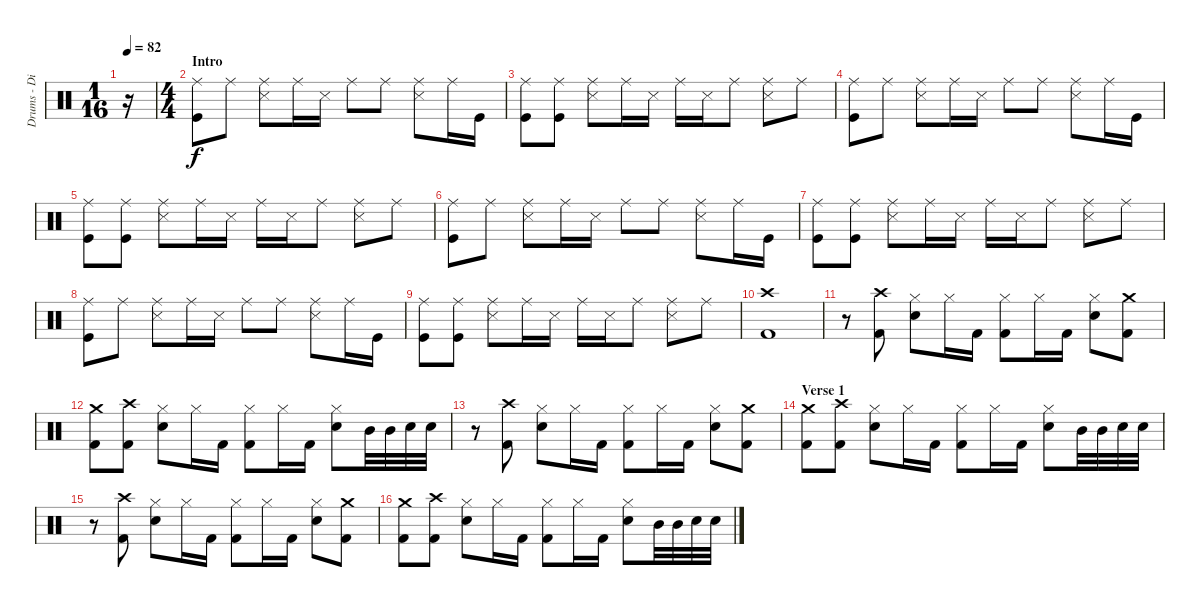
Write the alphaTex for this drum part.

\track ("Drums - Dino Campanella" "Drums - Di") {instrument percussion}
\staff {score}
\articulation defaults
\ts (1 16)
\tempo 82
\clef neutral
\ks c
r.16{dy f} |
\ts (4 4)
\section ("" "Intro")
("Ride (middle)" "Kick (hit)").8 "Ride (middle)".8 ("Ride (middle)" "Snare (side stick) 3").8 "Ride (middle)".16 "Snare (side stick) 3".16 "Ride (middle)".8 "Ride (middle)".8 ("Ride (middle)" "Snare (side stick) 3").8 "Ride (middle)".16 "Kick (hit)".16 |
("Ride (middle)" "Kick (hit)").8 ("Ride (middle)" "Kick (hit)").8 ("Ride (middle)" "Snare (side stick) 3").8 "Ride (middle)".16 "Snare (side stick) 3".16 "Ride (middle)".16 "Snare (side stick) 3".16 "Ride (middle)".8 ("Ride (middle)" "Snare (side stick) 3").8 "Ride (middle)".8 |
("Ride (middle)" "Kick (hit)").8 "Ride (middle)".8 ("Ride (middle)" "Snare (side stick) 3").8 "Ride (middle)".16 "Snare (side stick) 3".16 "Ride (middle)".8 "Ride (middle)".8 ("Ride (middle)" "Snare (side stick) 3").8 "Ride (middle)".16 "Kick (hit)".16 |
("Ride (middle)" "Kick (hit)").8 ("Ride (middle)" "Kick (hit)").8 ("Ride (middle)" "Snare (side stick) 3").8 "Ride (middle)".16 "Snare (side stick) 3".16 "Ride (middle)".16 "Snare (side stick) 3".16 "Ride (middle)".8 ("Ride (middle)" "Snare (side stick) 3").8 "Ride (middle)".8 |
("Ride (middle)" "Kick (hit)").8 "Ride (middle)".8 ("Ride (middle)" "Snare (side stick) 3").8 "Ride (middle)".16 "Snare (side stick) 3".16 "Ride (middle)".8 "Ride (middle)".8 ("Ride (middle)" "Snare (side stick) 3").8 "Ride (middle)".16 "Kick (hit)".16 |
("Ride (middle)" "Kick (hit)").8 ("Ride (middle)" "Kick (hit)").8 ("Ride (middle)" "Snare (side stick) 3").8 "Ride (middle)".16 "Snare (side stick) 3".16 "Ride (middle)".16 "Snare (side stick) 3".16 "Ride (middle)".8 ("Ride (middle)" "Snare (side stick) 3").8 "Ride (middle)".8 |
("Ride (middle)" "Kick (hit)").8 "Ride (middle)".8 ("Ride (middle)" "Snare (side stick) 3").8 "Ride (middle)".16 "Snare (side stick) 3".16 "Ride (middle)".8 "Ride (middle)".8 ("Ride (middle)" "Snare (side stick) 3").8 "Ride (middle)".16 "Kick (hit)".16 |
("Ride (middle)" "Kick (hit)").8 ("Ride (middle)" "Kick (hit)").8 ("Ride (middle)" "Snare (side stick) 3").8 "Ride (middle)".16 "Snare (side stick) 3".16 "Ride (middle)".16 "Snare (side stick) 3".16 "Ride (middle)".8 ("Ride (middle)" "Snare (side stick) 3").8 "Ride (middle)".8 |
("Crash high (hit)" "Kick (hit) 2").1 |
r.8 ("Crash high (hit)" "Kick (hit) 2").8 ("Hi-Hat (closed)" "Electric Snare (hit)").8 "Hi-Hat (closed)".16 "Kick (hit) 2".16 ("Hi-Hat (closed)" "Kick (hit) 2").8 "Hi-Hat (closed)".16 "Kick (hit) 2".16 ("Hi-Hat (closed)" "Electric Snare (hit)").8 ("Crash medium (hit)" "Kick (hit) 2").8 |
("Crash medium (hit)" "Kick (hit) 2").8 ("Crash high (hit)" "Kick (hit) 2").8 ("Hi-Hat (closed)" "Electric Snare (hit)").8 "Hi-Hat (closed)".16 "Kick (hit) 2".16 ("Hi-Hat (closed)" "Kick (hit) 2").8 "Hi-Hat (closed)".16 "Kick (hit) 2".16 ("Hi-Hat (closed)" "Electric Snare (hit)").8 "Mid Tom (hit)".32 "Mid Tom (hit)".32 "Electric Snare (hit)".32 "Electric Snare (hit)".32 |
r.8 ("Crash high (hit)" "Kick (hit) 2").8 ("Hi-Hat (closed)" "Electric Snare (hit)").8 "Hi-Hat (closed)".16 "Kick (hit) 2".16 ("Hi-Hat (closed)" "Kick (hit) 2").8 "Hi-Hat (closed)".16 "Kick (hit) 2".16 ("Hi-Hat (closed)" "Electric Snare (hit)").8 ("Crash medium (hit)" "Kick (hit) 2").8 |
\section ("" "Verse 1")
("Crash medium (hit)" "Kick (hit) 2").8 ("Crash high (hit)" "Kick (hit) 2").8 ("Hi-Hat (closed)" "Electric Snare (hit)").8 "Hi-Hat (closed)".16 "Kick (hit) 2".16 ("Hi-Hat (closed)" "Kick (hit) 2").8 "Hi-Hat (closed)".16 "Kick (hit) 2".16 ("Hi-Hat (closed)" "Electric Snare (hit)").8 "Mid Tom (hit)".32 "Mid Tom (hit)".32 "Electric Snare (hit)".32 "Electric Snare (hit)".32 |
r.8 ("Crash high (hit)" "Kick (hit) 2").8 ("Hi-Hat (closed)" "Electric Snare (hit)").8 "Hi-Hat (closed)".16 "Kick (hit) 2".16 ("Hi-Hat (closed)" "Kick (hit) 2").8 "Hi-Hat (closed)".16 "Kick (hit) 2".16 ("Hi-Hat (closed)" "Electric Snare (hit)").8 ("Crash medium (hit)" "Kick (hit) 2").8 |
("Crash medium (hit)" "Kick (hit) 2").8 ("Crash high (hit)" "Kick (hit) 2").8 ("Hi-Hat (closed)" "Electric Snare (hit)").8 "Hi-Hat (closed)".16 "Kick (hit) 2".16 ("Hi-Hat (closed)" "Kick (hit) 2").8 "Hi-Hat (closed)".16 "Kick (hit) 2".16 ("Hi-Hat (closed)" "Electric Snare (hit)").8 "Mid Tom (hit)".32 "Mid Tom (hit)".32 "Electric Snare (hit)".32 "Electric Snare (hit)".32
